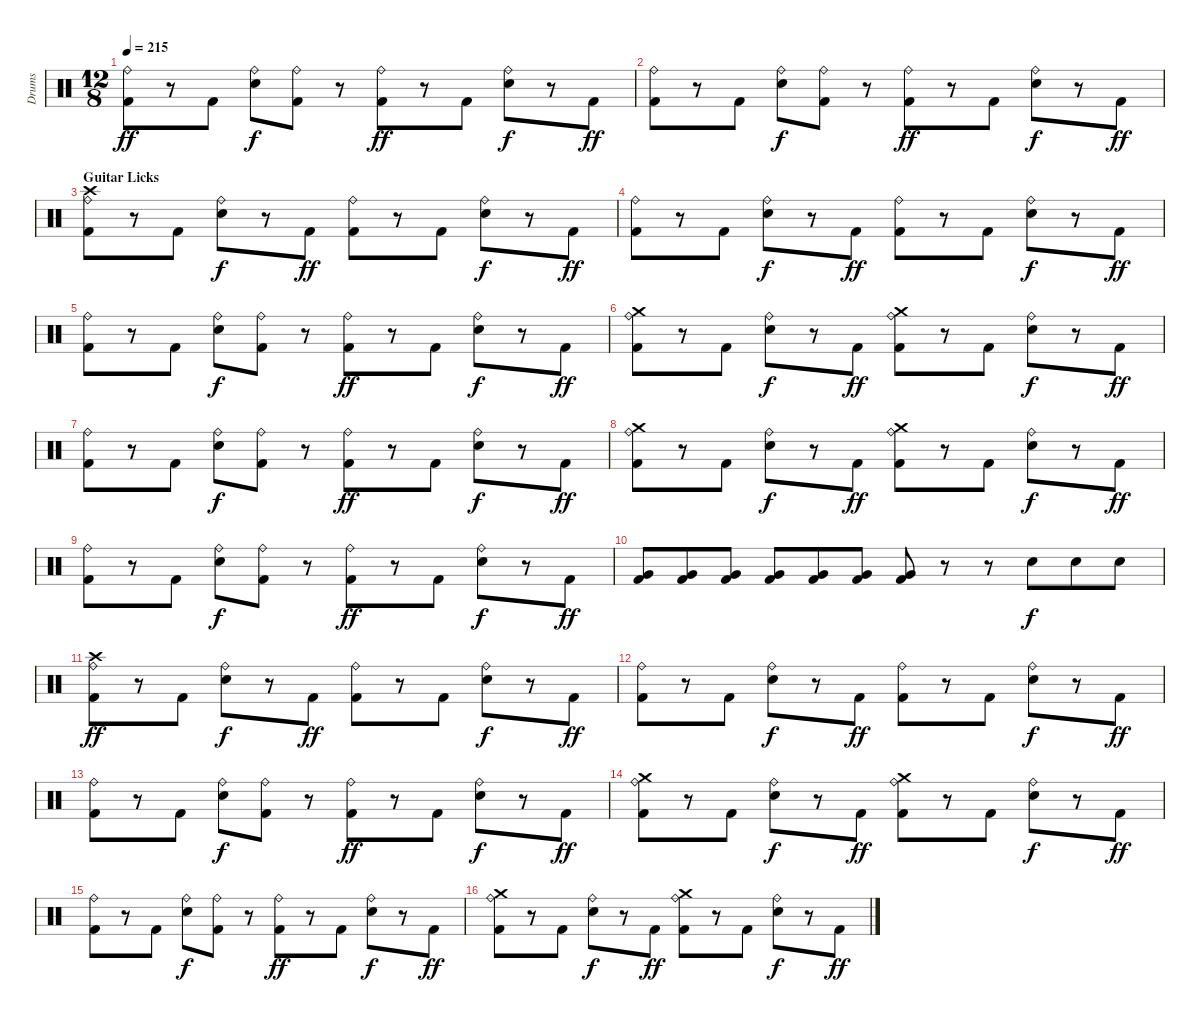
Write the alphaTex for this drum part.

\track ("Drums" "Drums") {instrument percussion}
\staff {score}
\articulation defaults
\ts (12 8)
\tempo 215
\clef neutral
\ks c
("Ride (bell)" "Kick (hit) 2").8{dy ff} r.8 "Kick (hit) 2".8 ("Ride (bell)" "Snare (hit) 2").8{dy f} ("Ride (bell)" "Kick (hit) 2").8 r.8 ("Ride (bell)" "Kick (hit) 2").8{dy ff} r.8 "Kick (hit) 2".8 ("Ride (bell)" "Snare (hit) 2").8{dy f} r.8 "Kick (hit) 2".8{dy ff} |
("Ride (bell)" "Kick (hit) 2").8 r.8 "Kick (hit) 2".8 ("Ride (bell)" "Snare (hit) 2").8{dy f} ("Ride (bell)" "Kick (hit) 2").8 r.8 ("Ride (bell)" "Kick (hit) 2").8{dy ff} r.8 "Kick (hit) 2".8 ("Ride (bell)" "Snare (hit) 2").8{dy f} r.8 "Kick (hit) 2".8{dy ff} |
\section ("" "Guitar Licks")
("Crash high (hit)" "Ride (bell)" "Kick (hit) 2").8 r.8 "Kick (hit) 2".8 ("Ride (bell)" "Snare (hit) 2").8{dy f} r.8 "Kick (hit) 2".8{dy ff} ("Ride (bell)" "Kick (hit) 2").8 r.8 "Kick (hit) 2".8 ("Ride (bell)" "Snare (hit) 2").8{dy f} r.8 "Kick (hit) 2".8{dy ff} |
("Ride (bell)" "Kick (hit) 2").8 r.8 "Kick (hit) 2".8 ("Ride (bell)" "Snare (hit) 2").8{dy f} r.8 "Kick (hit) 2".8{dy ff} ("Ride (bell)" "Kick (hit) 2").8 r.8 "Kick (hit) 2".8 ("Ride (bell)" "Snare (hit) 2").8{dy f} r.8 "Kick (hit) 2".8{dy ff} |
("Ride (bell)" "Kick (hit) 2").8 r.8 "Kick (hit) 2".8 ("Ride (bell)" "Snare (hit) 2").8{dy f} ("Ride (bell)" "Kick (hit) 2").8 r.8 ("Ride (bell)" "Kick (hit) 2").8{dy ff} r.8 "Kick (hit) 2".8 ("Ride (bell)" "Snare (hit) 2").8{dy f} r.8 "Kick (hit) 2".8{dy ff} |
("Crash medium (hit)" "Ride (bell)" "Kick (hit) 2").8 r.8 "Kick (hit) 2".8 ("Ride (bell)" "Snare (hit) 2").8{dy f} r.8 "Kick (hit) 2".8{dy ff} ("Crash medium (hit)" "Ride (bell)" "Kick (hit) 2").8 r.8 "Kick (hit) 2".8 ("Ride (bell)" "Snare (hit) 2").8{dy f} r.8 "Kick (hit) 2".8{dy ff} |
("Ride (bell)" "Kick (hit) 2").8 r.8 "Kick (hit) 2".8 ("Ride (bell)" "Snare (hit) 2").8{dy f} ("Ride (bell)" "Kick (hit) 2").8 r.8 ("Ride (bell)" "Kick (hit) 2").8{dy ff} r.8 "Kick (hit) 2".8 ("Ride (bell)" "Snare (hit) 2").8{dy f} r.8 "Kick (hit) 2".8{dy ff} |
("Crash medium (hit)" "Ride (bell)" "Kick (hit) 2").8 r.8 "Kick (hit) 2".8 ("Ride (bell)" "Snare (hit) 2").8{dy f} r.8 "Kick (hit) 2".8{dy ff} ("Crash medium (hit)" "Ride (bell)" "Kick (hit) 2").8 r.8 "Kick (hit) 2".8 ("Ride (bell)" "Snare (hit) 2").8{dy f} r.8 "Kick (hit) 2".8{dy ff} |
("Ride (bell)" "Kick (hit) 2").8 r.8 "Kick (hit) 2".8 ("Ride (bell)" "Snare (hit) 2").8{dy f} ("Ride (bell)" "Kick (hit) 2").8 r.8 ("Ride (bell)" "Kick (hit) 2").8{dy ff} r.8 "Kick (hit) 2".8 ("Ride (bell)" "Snare (hit) 2").8{dy f} r.8 "Kick (hit) 2".8{dy ff} |
("Very Low Tom (hit)" "Kick (hit) 2").8 ("Very Low Tom (hit)" "Kick (hit) 2").8 ("Very Low Tom (hit)" "Kick (hit) 2").8 ("Very Low Tom (hit)" "Kick (hit) 2").8 ("Very Low Tom (hit)" "Kick (hit) 2").8 ("Very Low Tom (hit)" "Kick (hit) 2").8 ("Very Low Tom (hit)" "Kick (hit) 2").8 r.8 r.8 "Snare (hit) 2".8{dy f} "Snare (hit) 2".8 "Snare (hit) 2".8 |
("Crash high (hit)" "Ride (bell)" "Kick (hit) 2").8{dy ff} r.8 "Kick (hit) 2".8 ("Ride (bell)" "Snare (hit) 2").8{dy f} r.8 "Kick (hit) 2".8{dy ff} ("Ride (bell)" "Kick (hit) 2").8 r.8 "Kick (hit) 2".8 ("Ride (bell)" "Snare (hit) 2").8{dy f} r.8 "Kick (hit) 2".8{dy ff} |
("Ride (bell)" "Kick (hit) 2").8 r.8 "Kick (hit) 2".8 ("Ride (bell)" "Snare (hit) 2").8{dy f} r.8 "Kick (hit) 2".8{dy ff} ("Ride (bell)" "Kick (hit) 2").8 r.8 "Kick (hit) 2".8 ("Ride (bell)" "Snare (hit) 2").8{dy f} r.8 "Kick (hit) 2".8{dy ff} |
("Ride (bell)" "Kick (hit) 2").8 r.8 "Kick (hit) 2".8 ("Ride (bell)" "Snare (hit) 2").8{dy f} ("Ride (bell)" "Kick (hit) 2").8 r.8 ("Ride (bell)" "Kick (hit) 2").8{dy ff} r.8 "Kick (hit) 2".8 ("Ride (bell)" "Snare (hit) 2").8{dy f} r.8 "Kick (hit) 2".8{dy ff} |
("Crash medium (hit)" "Ride (bell)" "Kick (hit) 2").8 r.8 "Kick (hit) 2".8 ("Ride (bell)" "Snare (hit) 2").8{dy f} r.8 "Kick (hit) 2".8{dy ff} ("Crash medium (hit)" "Ride (bell)" "Kick (hit) 2").8 r.8 "Kick (hit) 2".8 ("Ride (bell)" "Snare (hit) 2").8{dy f} r.8 "Kick (hit) 2".8{dy ff} |
("Ride (bell)" "Kick (hit) 2").8 r.8 "Kick (hit) 2".8 ("Ride (bell)" "Snare (hit) 2").8{dy f} ("Ride (bell)" "Kick (hit) 2").8 r.8 ("Ride (bell)" "Kick (hit) 2").8{dy ff} r.8 "Kick (hit) 2".8 ("Ride (bell)" "Snare (hit) 2").8{dy f} r.8 "Kick (hit) 2".8{dy ff} |
("Crash medium (hit)" "Ride (bell)" "Kick (hit) 2").8 r.8 "Kick (hit) 2".8 ("Ride (bell)" "Snare (hit) 2").8{dy f} r.8 "Kick (hit) 2".8{dy ff} ("Crash medium (hit)" "Ride (bell)" "Kick (hit) 2").8 r.8 "Kick (hit) 2".8 ("Ride (bell)" "Snare (hit) 2").8{dy f} r.8 "Kick (hit) 2".8{dy ff}
